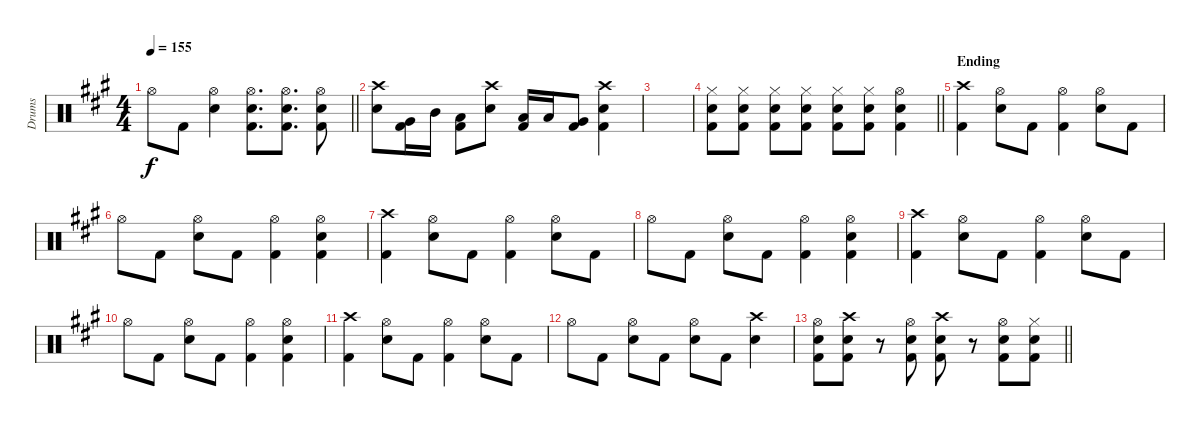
\track ("Drums" "Drums") {instrument percussion}
\staff {score}
\articulation defaults
\ts (4 4)
\tempo 155
\clef neutral
\barLineRight lightlight
\ks a "Hi-Hat (open)".8{dy f} "Kick (hit) 2".8
("Hi-Hat (open)" "Snare (hit) 2").4 ("Hi-Hat (open)" "Snare (hit) 2" "Kick (hit) 2").8{d} ("Hi-Hat (open)" "Snare (hit) 2" "Kick (hit) 2").8{d} ("Hi-Hat (open)" "Snare (hit) 2" "Kick (hit) 2").8 |
("Crash high (hit)" "Snare (hit) 2").8 ("Very Low Tom (hit)" "Kick (hit) 2").16 "Mid Tom (hit)".16 ("Low Tom (hit)" "Kick (hit) 2").8 ("Crash high (hit)" "Snare (hit) 2").8 ("Low Floor Tom (hit)" "Kick (hit) 2").16 "Low Tom (hit)".16 ("Very Low Tom (hit)" "Kick (hit) 2").8 ("Crash high (hit)" "Snare (hit) 2" "Kick (hit) 2").4 |
|
\barLineRight lightlight
("Hi-Hat (closed)" "Snare (hit) 2" "Kick (hit) 2").8 ("Hi-Hat (closed)" "Snare (hit) 2" "Kick (hit) 2").8 ("Hi-Hat (closed)" "Snare (hit) 2" "Kick (hit) 2").8 ("Hi-Hat (closed)" "Snare (hit) 2" "Kick (hit) 2").8 ("Hi-Hat (closed)" "Snare (hit) 2" "Kick (hit) 2").8 ("Hi-Hat (closed)" "Snare (hit) 2" "Kick (hit) 2").8 ("Hi-Hat (open)" "Snare (hit) 2" "Kick (hit) 2").4 |
\section ("" "Ending")
("Crash high (hit)" "Kick (hit) 2").4 ("Hi-Hat (open)" "Snare (hit) 2").8 "Kick (hit) 2".8 ("Hi-Hat (open)" "Kick (hit) 2").4 ("Hi-Hat (open)" "Snare (hit) 2").8 "Kick (hit) 2".8 |
"Hi-Hat (open)".8 "Kick (hit) 2".8 ("Hi-Hat (open)" "Snare (hit) 2").8 "Kick (hit) 2".8 ("Hi-Hat (open)" "Kick (hit) 2").4 ("Hi-Hat (open)" "Snare (hit) 2" "Kick (hit) 2").4 |
("Crash high (hit)" "Kick (hit) 2").4 ("Hi-Hat (open)" "Snare (hit) 2").8 "Kick (hit) 2".8 ("Hi-Hat (open)" "Kick (hit) 2").4 ("Hi-Hat (open)" "Snare (hit) 2").8 "Kick (hit) 2".8 |
"Hi-Hat (open)".8 "Kick (hit) 2".8 ("Hi-Hat (open)" "Snare (hit) 2").8 "Kick (hit) 2".8 ("Hi-Hat (open)" "Kick (hit) 2").4 ("Hi-Hat (open)" "Snare (hit) 2" "Kick (hit) 2").4 |
("Crash high (hit)" "Kick (hit) 2").4 ("Hi-Hat (open)" "Snare (hit) 2").8 "Kick (hit) 2".8 ("Hi-Hat (open)" "Kick (hit) 2").4 ("Hi-Hat (open)" "Snare (hit) 2").8 "Kick (hit) 2".8 |
"Hi-Hat (open)".8 "Kick (hit) 2".8 ("Hi-Hat (open)" "Snare (hit) 2").8 "Kick (hit) 2".8 ("Hi-Hat (open)" "Kick (hit) 2").4 ("Hi-Hat (open)" "Snare (hit) 2" "Kick (hit) 2").4 |
("Crash high (hit)" "Kick (hit) 2").4 ("Hi-Hat (open)" "Snare (hit) 2").8 "Kick (hit) 2".8 ("Hi-Hat (open)" "Kick (hit) 2").4 ("Hi-Hat (open)" "Snare (hit) 2").8 "Kick (hit) 2".8 |
"Hi-Hat (open)".8 "Kick (hit) 2".8 ("Hi-Hat (open)" "Snare (hit) 2").8 "Kick (hit) 2".8 ("Hi-Hat (open)" "Snare (hit) 2").8 "Kick (hit) 2".8 ("Crash high (hit)" "Snare (hit) 2").4 |
\barLineRight lightlight
("Hi-Hat (open)" "Snare (hit) 2" "Kick (hit) 2").8 ("Crash high (hit)" "Snare (hit) 2" "Kick (hit) 2").8 r.8 ("Hi-Hat (open)" "Snare (hit) 2" "Kick (hit) 2").8 ("Crash high (hit)" "Snare (hit) 2" "Kick (hit) 2").8 r.8 ("Hi-Hat (open)" "Snare (hit) 2" "Kick (hit) 2").8 ("Hi-Hat (closed)" "Snare (hit) 2" "Kick (hit) 2").8
